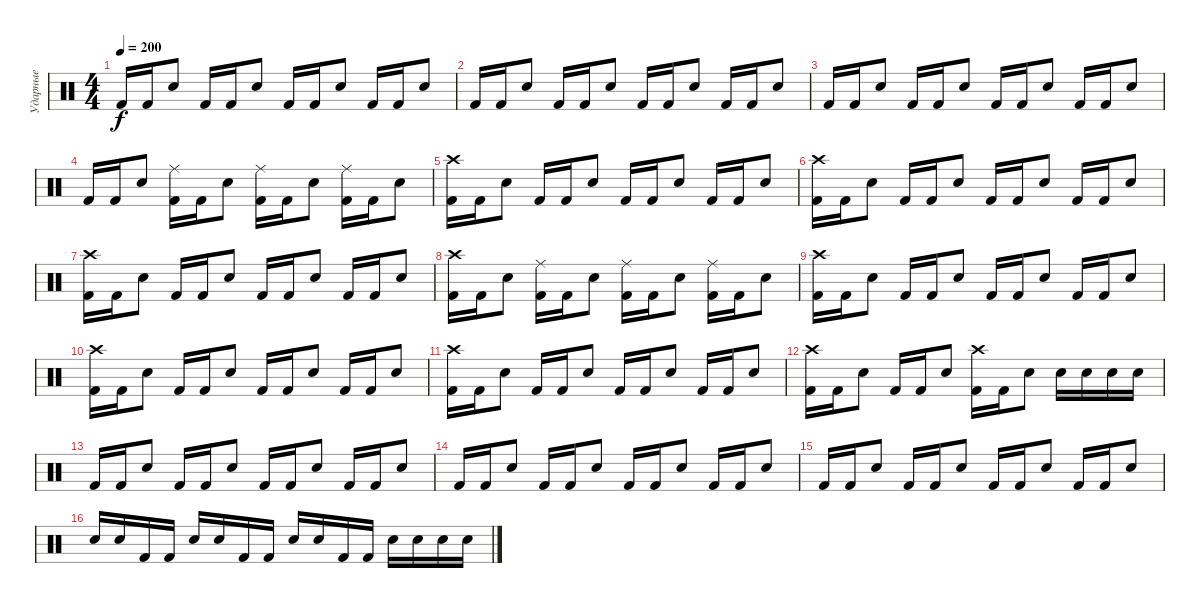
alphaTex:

\track ("Ударные" "Ударные") {instrument percussion}
\staff {score}
\articulation defaults
\ts (4 4)
\tempo 200
\clef neutral
\ks c "Kick (hit) 2".16{dy f} "Kick (hit) 2".16 "Electric Snare (hit)".8 "Kick (hit) 2".16 "Kick (hit) 2".16 "Electric Snare (hit)".8 "Kick (hit) 2".16 "Kick (hit) 2".16 "Electric Snare (hit)".8 "Kick (hit) 2".16 "Kick (hit) 2".16 "Electric Snare (hit)".8
|
"Kick (hit) 2".16 "Kick (hit) 2".16 "Electric Snare (hit)".8 "Kick (hit) 2".16 "Kick (hit) 2".16 "Electric Snare (hit)".8 "Kick (hit) 2".16 "Kick (hit) 2".16 "Electric Snare (hit)".8 "Kick (hit) 2".16 "Kick (hit) 2".16 "Electric Snare (hit)".8 |
"Kick (hit) 2".16 "Kick (hit) 2".16 "Electric Snare (hit)".8 "Kick (hit) 2".16 "Kick (hit) 2".16 "Electric Snare (hit)".8 "Kick (hit) 2".16 "Kick (hit) 2".16 "Electric Snare (hit)".8 "Kick (hit) 2".16 "Kick (hit) 2".16 "Electric Snare (hit)".8 |
"Kick (hit) 2".16 "Kick (hit) 2".16 "Electric Snare (hit)".8 ("Kick (hit) 2" "Ride (middle)").16 "Kick (hit) 2".16 "Electric Snare (hit)".8 ("Kick (hit) 2" "Ride (middle)").16 "Kick (hit) 2".16 "Electric Snare (hit)".8 ("Kick (hit) 2" "Ride (middle)").16 "Kick (hit) 2".16 "Electric Snare (hit)".8 |
("Kick (hit) 2" "Crash high (hit)").16 "Kick (hit) 2".16 "Electric Snare (hit)".8 "Kick (hit) 2".16 "Kick (hit) 2".16 "Electric Snare (hit)".8 "Kick (hit) 2".16 "Kick (hit) 2".16 "Electric Snare (hit)".8 "Kick (hit) 2".16 "Kick (hit) 2".16 "Electric Snare (hit)".8 |
("Kick (hit) 2" "Crash high (hit)").16 "Kick (hit) 2".16 "Electric Snare (hit)".8 "Kick (hit) 2".16 "Kick (hit) 2".16 "Electric Snare (hit)".8 "Kick (hit) 2".16 "Kick (hit) 2".16 "Electric Snare (hit)".8 "Kick (hit) 2".16 "Kick (hit) 2".16 "Electric Snare (hit)".8 |
("Kick (hit) 2" "Crash high (hit)").16 "Kick (hit) 2".16 "Electric Snare (hit)".8 "Kick (hit) 2".16 "Kick (hit) 2".16 "Electric Snare (hit)".8 "Kick (hit) 2".16 "Kick (hit) 2".16 "Electric Snare (hit)".8 "Kick (hit) 2".16 "Kick (hit) 2".16 "Electric Snare (hit)".8 |
("Kick (hit) 2" "Crash high (hit)").16 "Kick (hit) 2".16 "Electric Snare (hit)".8 ("Kick (hit) 2" "Ride (middle)").16 "Kick (hit) 2".16 "Electric Snare (hit)".8 ("Kick (hit) 2" "Ride (middle)").16 "Kick (hit) 2".16 "Electric Snare (hit)".8 ("Kick (hit) 2" "Ride (middle)").16 "Kick (hit) 2".16 "Electric Snare (hit)".8 |
("Kick (hit) 2" "Crash high (hit)").16 "Kick (hit) 2".16 "Electric Snare (hit)".8 "Kick (hit) 2".16 "Kick (hit) 2".16 "Electric Snare (hit)".8 "Kick (hit) 2".16 "Kick (hit) 2".16 "Electric Snare (hit)".8 "Kick (hit) 2".16 "Kick (hit) 2".16 "Electric Snare (hit)".8 |
("Kick (hit) 2" "Crash high (hit)").16 "Kick (hit) 2".16 "Electric Snare (hit)".8 "Kick (hit) 2".16 "Kick (hit) 2".16 "Electric Snare (hit)".8 "Kick (hit) 2".16 "Kick (hit) 2".16 "Electric Snare (hit)".8 "Kick (hit) 2".16 "Kick (hit) 2".16 "Electric Snare (hit)".8 |
("Kick (hit) 2" "Crash high (hit)").16 "Kick (hit) 2".16 "Electric Snare (hit)".8 "Kick (hit) 2".16 "Kick (hit) 2".16 "Electric Snare (hit)".8 "Kick (hit) 2".16 "Kick (hit) 2".16 "Electric Snare (hit)".8 "Kick (hit) 2".16 "Kick (hit) 2".16 "Electric Snare (hit)".8 |
("Kick (hit) 2" "Crash high (hit)").16 "Kick (hit) 2".16 "Electric Snare (hit)".8 "Kick (hit) 2".16 "Kick (hit) 2".16 "Electric Snare (hit)".8 ("Kick (hit) 2" "Crash high (hit)").16 "Kick (hit) 2".16 "Electric Snare (hit)".8 "Electric Snare (hit)".16 "Electric Snare (hit)".16 "Electric Snare (hit)".16 "Electric Snare (hit)".16 |
"Kick (hit) 2".16 "Kick (hit) 2".16 "Electric Snare (hit)".8 "Kick (hit) 2".16 "Kick (hit) 2".16 "Electric Snare (hit)".8 "Kick (hit) 2".16 "Kick (hit) 2".16 "Electric Snare (hit)".8 "Kick (hit) 2".16 "Kick (hit) 2".16 "Electric Snare (hit)".8 |
"Kick (hit) 2".16 "Kick (hit) 2".16 "Electric Snare (hit)".8 "Kick (hit) 2".16 "Kick (hit) 2".16 "Electric Snare (hit)".8 "Kick (hit) 2".16 "Kick (hit) 2".16 "Electric Snare (hit)".8 "Kick (hit) 2".16 "Kick (hit) 2".16 "Electric Snare (hit)".8 |
"Kick (hit) 2".16 "Kick (hit) 2".16 "Electric Snare (hit)".8 "Kick (hit) 2".16 "Kick (hit) 2".16 "Electric Snare (hit)".8 "Kick (hit) 2".16 "Kick (hit) 2".16 "Electric Snare (hit)".8 "Kick (hit) 2".16 "Kick (hit) 2".16 "Electric Snare (hit)".8 |
"Electric Snare (hit)".16 "Electric Snare (hit)".16 "Kick (hit) 2".16 "Kick (hit) 2".16 "Electric Snare (hit)".16 "Electric Snare (hit)".16 "Kick (hit) 2".16 "Kick (hit) 2".16 "Electric Snare (hit)".16 "Electric Snare (hit)".16 "Kick (hit) 2".16 "Kick (hit) 2".16 "Electric Snare (hit)".16 "Electric Snare (hit)".16 "Electric Snare (hit)".16 "Electric Snare (hit)".16
